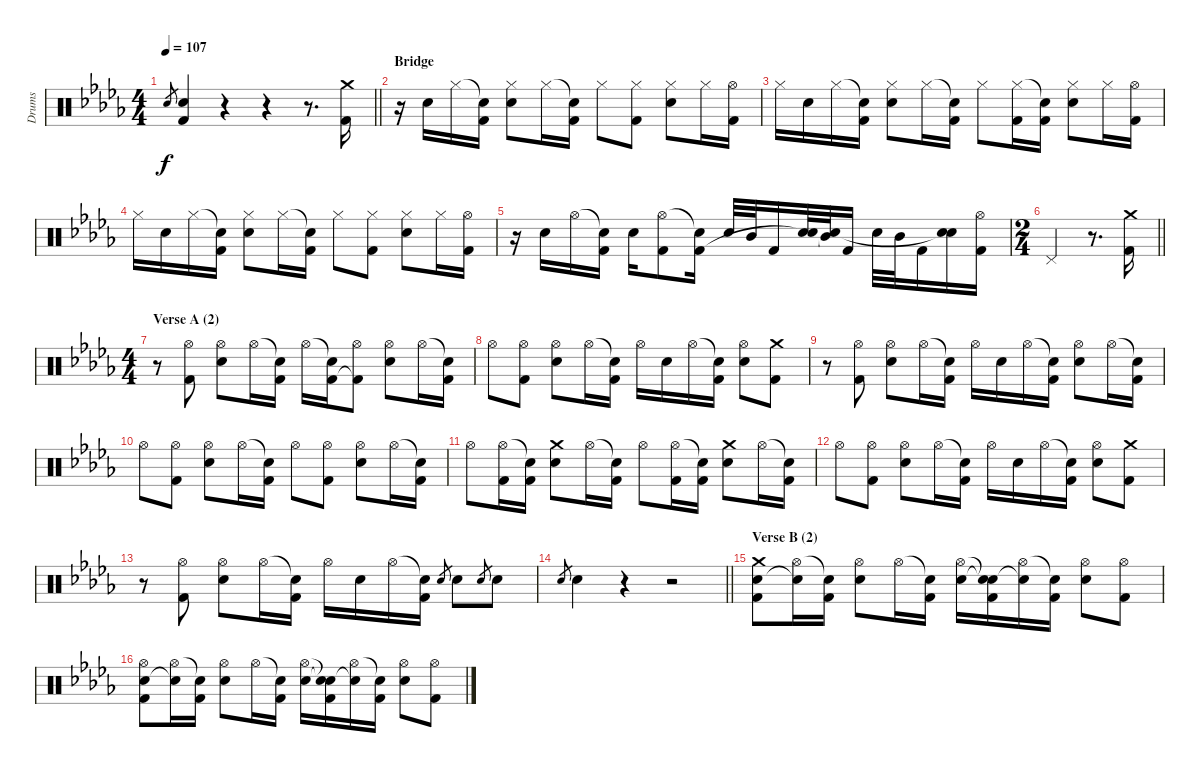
\track ("Drums" "Drums") {instrument percussion}
\staff {score}
\articulation defaults
\ts (4 4)
\tempo 107
\clef neutral
\barLineRight lightlight
\ks bbminor "Electric Snare (hit)".8{gr dy f}
("Electric Snare (hit)" "Kick (hit) 2").4 r.4 r.4 r.8{d} ("Crash medium (hit)" "Kick (hit) 2").16 |
\section ("" "Bridge")
r.16 "Electric Snare (hit)".16 "Hi-Hat (closed)".16 ("Snare (hit)"{t} "Kick (hit) 2").16 ("Hi-Hat (closed)" "Electric Snare (hit)").8 "Hi-Hat (closed)".16 ("Snare (hit)"{t} "Kick (hit) 2").16 "Hi-Hat (closed)".8 ("Hi-Hat (closed)" "Kick (hit) 2").8 ("Hi-Hat (closed)" "Electric Snare (hit)").8 "Hi-Hat (closed)".16 ("Hi-Hat (open)" "Kick (hit) 2").16 |
"Hi-Hat (closed)".16 "Electric Snare (hit)".16 "Hi-Hat (closed)".16 ("Snare (hit)"{t} "Kick (hit) 2").16 ("Hi-Hat (closed)" "Electric Snare (hit)").8 "Hi-Hat (closed)".16 ("Snare (hit)"{t} "Kick (hit) 2").16 "Hi-Hat (closed)".8 ("Hi-Hat (closed)" "Kick (hit) 2").16 ("Snare (hit)"{t} "Kick (hit) 2").16 ("Hi-Hat (closed)" "Electric Snare (hit)").8 "Hi-Hat (closed)".16 ("Hi-Hat (open)" "Kick (hit) 2").16 |
"Hi-Hat (closed)".16 "Electric Snare (hit)".16 "Hi-Hat (closed)".16 ("Snare (hit)"{t} "Kick (hit) 2").16 ("Hi-Hat (closed)" "Electric Snare (hit)").8 "Hi-Hat (closed)".16 ("Snare (hit)"{t} "Kick (hit) 2").16 "Hi-Hat (closed)".8 ("Hi-Hat (closed)" "Kick (hit) 2").8 ("Hi-Hat (closed)" "Electric Snare (hit)").8 "Hi-Hat (closed)".16 ("Hi-Hat (open)" "Kick (hit) 2").16 |
r.16 "Electric Snare (hit)".16 "Hi-Hat (open)".16 ("Snare (hit)"{t} "Kick (hit) 2").16 "Electric Snare (hit)".16 ("Hi-Hat (open)" "Kick (hit) 2").8 ("Snare (hit)"{t} "Kick (hit) 2").16 "Electric Snare (hit)".32 "Mid Tom (hit)".32 "Kick (hit) 2".16 ("Electric Snare (hit)" "Snare (hit)"{t}).32 ("Mid Tom (hit)" "Snare (hit)"{t}).32 "Kick (hit) 2".16 "Electric Snare (hit)".32 "Mid Tom (hit)".32 "Kick (hit) 2".16 ("Electric Snare (hit)" "Snare (hit)"{t}).16 ("Hi-Hat (open)" "Kick (hit) 2").16 |
\ts (2 4)
\barLineRight lightlight "Pedal Hi-Hat (hit)".4
r.8{d} ("Crash medium (hit)" "Kick (hit) 2").16 |
\ts (4 4)
\section ("" "Verse A (2)")
r.8 ("Hi-Hat (open)" "Kick (hit) 2").8 ("Hi-Hat (open)" "Electric Snare (hit)").8 "Hi-Hat (open)".16 ("Snare (hit)"{t} "Kick (hit) 2").16 "Hi-Hat (open)".16 ("Snare (hit)"{t} "Kick (hit) 2").16 ("Hi-Hat (open)" "Kick (hit) 2"{t}).8 ("Hi-Hat (open)" "Electric Snare (hit)").8 "Hi-Hat (open)".16 ("Snare (hit)"{t} "Kick (hit) 2").16 |
"Hi-Hat (open)".8 ("Hi-Hat (open)" "Kick (hit) 2").8 ("Hi-Hat (open)" "Electric Snare (hit)").8 "Hi-Hat (open)".16 ("Snare (hit)"{t} "Kick (hit) 2").16 "Hi-Hat (open)".16 "Electric Snare (hit)".16 "Hi-Hat (open)".16 ("Snare (hit)"{t} "Kick (hit) 2").16 ("Hi-Hat (open)" "Electric Snare (hit)").8 ("Crash medium (hit)" "Kick (hit) 2").8 |
r.8 ("Hi-Hat (open)" "Kick (hit) 2").8 ("Hi-Hat (open)" "Electric Snare (hit)").8 "Hi-Hat (open)".16 ("Snare (hit)"{t} "Kick (hit) 2").16 "Hi-Hat (open)".16 "Electric Snare (hit)".16 "Hi-Hat (open)".16 ("Snare (hit)"{t} "Kick (hit) 2").16 ("Hi-Hat (open)" "Electric Snare (hit)").8 "Hi-Hat (open)".16 ("Snare (hit)"{t} "Kick (hit) 2").16 |
"Hi-Hat (open)".8 ("Hi-Hat (open)" "Kick (hit) 2").8 ("Hi-Hat (open)" "Electric Snare (hit)").8 "Hi-Hat (open)".16 ("Snare (hit)"{t} "Kick (hit) 2").16 "Hi-Hat (open)".8 ("Hi-Hat (open)" "Kick (hit) 2").8 ("Hi-Hat (open)" "Electric Snare (hit)").8 "Hi-Hat (open)".16 ("Snare (hit)"{t} "Kick (hit) 2").16 |
"Hi-Hat (open)".8 ("Hi-Hat (open)" "Kick (hit) 2").16 ("Snare (hit)"{t} "Kick (hit) 2").16 ("Crash medium (hit)" "Electric Snare (hit)").8 "Hi-Hat (open)".16 ("Snare (hit)"{t} "Kick (hit) 2").16 "Hi-Hat (open)".8 ("Hi-Hat (open)" "Kick (hit) 2").16 ("Snare (hit)"{t} "Kick (hit) 2").16 ("Crash medium (hit)" "Electric Snare (hit)").8 "Hi-Hat (open)".16 ("Snare (hit)"{t} "Kick (hit) 2").16 |
"Hi-Hat (open)".8 ("Hi-Hat (open)" "Kick (hit) 2").8 ("Hi-Hat (open)" "Electric Snare (hit)").8 "Hi-Hat (open)".16 ("Snare (hit)"{t} "Kick (hit) 2").16 "Hi-Hat (open)".16 "Electric Snare (hit)".16 "Hi-Hat (open)".16 ("Snare (hit)"{t} "Kick (hit) 2").16 ("Hi-Hat (open)" "Electric Snare (hit)").8 ("Crash medium (hit)" "Kick (hit) 2").8 |
r.8 ("Hi-Hat (open)" "Kick (hit) 2").8 ("Hi-Hat (open)" "Electric Snare (hit)").8 "Hi-Hat (open)".16 ("Snare (hit)"{t} "Kick (hit) 2").16 "Hi-Hat (open)".16 "Electric Snare (hit)".16 "Hi-Hat (open)".16 ("Snare (hit)"{t} "Kick (hit) 2").16 "Electric Snare (hit)".8{gr} "Electric Snare (hit)".8 "Electric Snare (hit)".8{gr} "Electric Snare (hit)".8 |
\barLineRight lightlight "Electric Snare (hit)".8{gr} "Electric Snare (hit)".4
r.4 r.2 |
\section ("" "Verse B (2)")
("Crash medium (hit)" "Electric Snare (hit)" "Kick (hit) 2").8 ("Hi-Hat (open)" "Snare (hit)"{t}).16 ("Snare (hit)"{t} "Kick (hit) 2").16 ("Hi-Hat (open)" "Electric Snare (hit)").8 "Hi-Hat (open)".16 ("Snare (hit)"{t} "Kick (hit) 2").16 ("Hi-Hat (open)" "Electric Snare (hit)").16 ("Snare (hit)"{t} "Snare (hit)"{t} "Kick (hit) 2").16 ("Hi-Hat (open)" "Snare (hit)"{t}).16 ("Snare (hit)"{t} "Kick (hit) 2").16 ("Hi-Hat (open)" "Electric Snare (hit)").8 ("Hi-Hat (open)" "Kick (hit) 2").8 |
("Hi-Hat (open)" "Electric Snare (hit)" "Kick (hit) 2").8 ("Hi-Hat (open)" "Snare (hit)"{t}).16 ("Snare (hit)"{t} "Kick (hit) 2").16 ("Hi-Hat (open)" "Electric Snare (hit)").8 "Hi-Hat (open)".16 ("Snare (hit)"{t} "Kick (hit) 2").16 ("Hi-Hat (open)" "Electric Snare (hit)").16 ("Snare (hit)"{t} "Snare (hit)"{t} "Kick (hit) 2").16 ("Hi-Hat (open)" "Snare (hit)"{t}).16 ("Snare (hit)"{t} "Kick (hit) 2").16 ("Hi-Hat (open)" "Electric Snare (hit)").8 ("Hi-Hat (open)" "Kick (hit) 2").8
